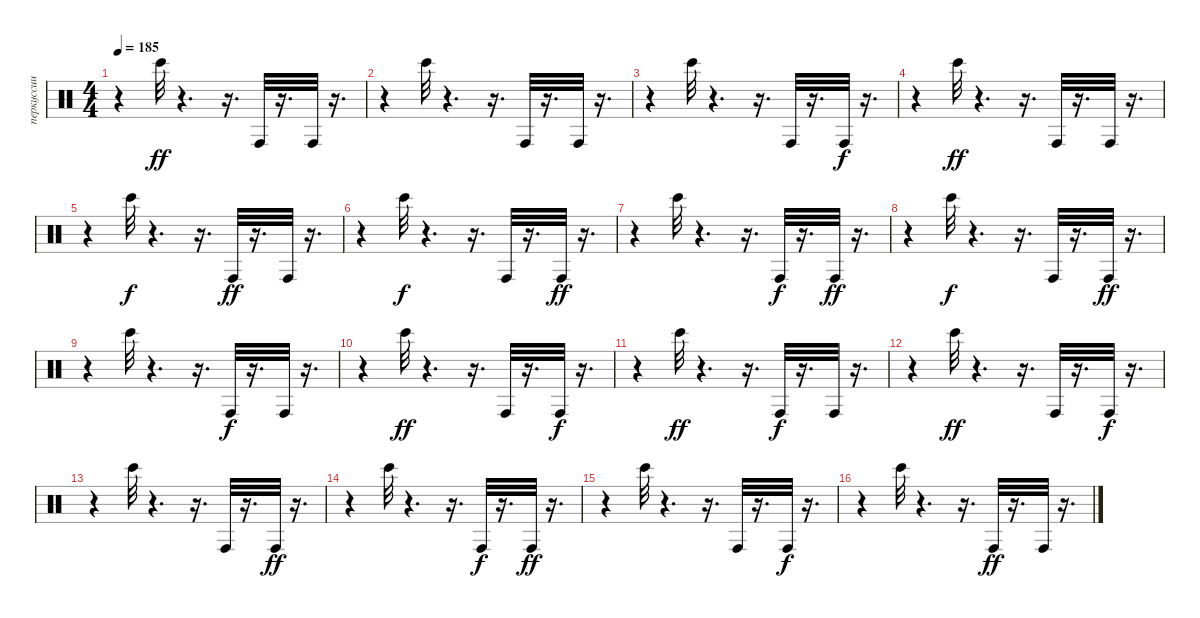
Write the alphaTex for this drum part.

\track ("перкуссии" "перкуссии") {instrument percussion}
\staff {score}
\articulation defaults
\ts (4 4)
\tempo 185
\clef neutral
\ks c
r.4{dy ff} "Bongo High (hit)".32 r.4{d} r.16{d} "Conga high (hit)".32 r.16{d} "Conga high (hit)".32 r.16{d} |
r.4 "Bongo High (hit)".32 r.4{d} r.16{d} "Conga high (hit)".32 r.16{d} "Conga high (hit)".32 r.16{d} |
r.4 "Bongo High (hit)".32 r.4{d} r.16{d} "Conga high (hit)".32 r.16{d} "Conga high (hit)".32{dy f} r.16{d} |
r.4 "Bongo High (hit)".32{dy ff} r.4{d} r.16{d} "Conga high (hit)".32 r.16{d} "Conga high (hit)".32 r.16{d} |
r.4 "Bongo High (hit)".32{dy f} r.4{d} r.16{d} "Conga high (hit)".32{dy ff} r.16{d} "Conga high (hit)".32 r.16{d} |
r.4 "Bongo High (hit)".32{dy f} r.4{d} r.16{d} "Conga high (hit)".32 r.16{d} "Conga high (hit)".32{dy ff} r.16{d} |
r.4 "Bongo High (hit)".32 r.4{d} r.16{d} "Conga high (hit)".32{dy f} r.16{d} "Conga high (hit)".32{dy ff} r.16{d} |
r.4 "Bongo High (hit)".32{dy f} r.4{d} r.16{d} "Conga high (hit)".32 r.16{d} "Conga high (hit)".32{dy ff} r.16{d} |
r.4 "Bongo High (hit)".32 r.4{d} r.16{d} "Conga high (hit)".32{dy f} r.16{d} "Conga high (hit)".32 r.16{d} |
r.4 "Bongo High (hit)".32{dy ff} r.4{d} r.16{d} "Conga high (hit)".32 r.16{d} "Conga high (hit)".32{dy f} r.16{d} |
r.4 "Bongo High (hit)".32{dy ff} r.4{d} r.16{d} "Conga high (hit)".32{dy f} r.16{d} "Conga high (hit)".32 r.16{d} |
r.4 "Bongo High (hit)".32{dy ff} r.4{d} r.16{d} "Conga high (hit)".32 r.16{d} "Conga high (hit)".32{dy f} r.16{d} |
r.4 "Bongo High (hit)".32 r.4{d} r.16{d} "Conga high (hit)".32 r.16{d} "Conga high (hit)".32{dy ff} r.16{d} |
r.4 "Bongo High (hit)".32 r.4{d} r.16{d} "Conga high (hit)".32{dy f} r.16{d} "Conga high (hit)".32{dy ff} r.16{d} |
r.4 "Bongo High (hit)".32 r.4{d} r.16{d} "Conga high (hit)".32 r.16{d} "Conga high (hit)".32{dy f} r.16{d} |
r.4 "Bongo High (hit)".32 r.4{d} r.16{d} "Conga high (hit)".32{dy ff} r.16{d} "Conga high (hit)".32 r.16{d}
